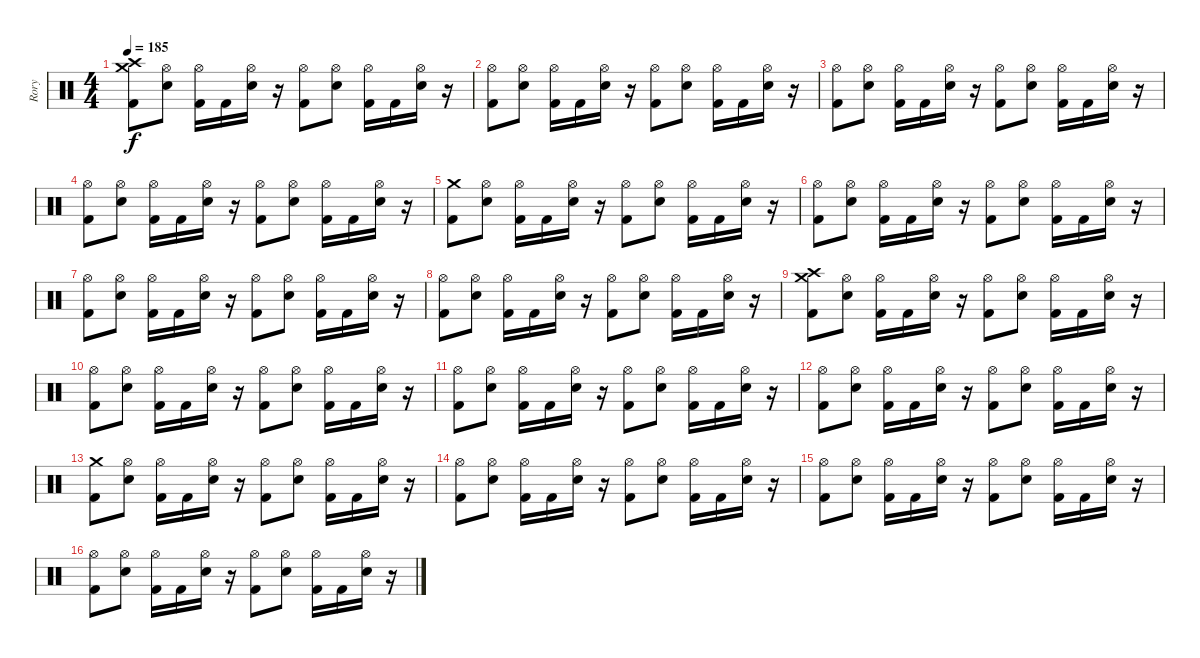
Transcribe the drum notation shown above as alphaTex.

\track ("Rory" "Rory") {instrument percussion}
\staff {score}
\articulation defaults
\ts (4 4)
\tempo 185
\clef neutral
\ks c
("Crash medium (hit)" "Crash high (hit)" "Kick (hit) 2").8{dy f} ("Hi-Hat (open)" "Electric Snare (hit)").8 ("Hi-Hat (open)" "Kick (hit) 2").16 "Kick (hit) 2".16 ("Hi-Hat (open)" "Electric Snare (hit)").16 r.16 ("Hi-Hat (open)" "Kick (hit) 2").8 ("Hi-Hat (open)" "Electric Snare (hit)").8 ("Hi-Hat (open)" "Kick (hit) 2").16 "Kick (hit) 2".16 ("Hi-Hat (open)" "Electric Snare (hit)").16 r.16 |
("Hi-Hat (open)" "Kick (hit) 2").8 ("Hi-Hat (open)" "Electric Snare (hit)").8 ("Hi-Hat (open)" "Kick (hit) 2").16 "Kick (hit) 2".16 ("Hi-Hat (open)" "Electric Snare (hit)").16 r.16 ("Hi-Hat (open)" "Kick (hit) 2").8 ("Hi-Hat (open)" "Electric Snare (hit)").8 ("Hi-Hat (open)" "Kick (hit) 2").16 "Kick (hit) 2".16 ("Hi-Hat (open)" "Electric Snare (hit)").16 r.16 |
("Hi-Hat (open)" "Kick (hit) 2").8 ("Hi-Hat (open)" "Electric Snare (hit)").8 ("Hi-Hat (open)" "Kick (hit) 2").16 "Kick (hit) 2".16 ("Hi-Hat (open)" "Electric Snare (hit)").16 r.16 ("Hi-Hat (open)" "Kick (hit) 2").8 ("Hi-Hat (open)" "Electric Snare (hit)").8 ("Hi-Hat (open)" "Kick (hit) 2").16 "Kick (hit) 2".16 ("Hi-Hat (open)" "Electric Snare (hit)").16 r.16 |
("Hi-Hat (open)" "Kick (hit) 2").8 ("Hi-Hat (open)" "Electric Snare (hit)").8 ("Hi-Hat (open)" "Kick (hit) 2").16 "Kick (hit) 2".16 ("Hi-Hat (open)" "Electric Snare (hit)").16 r.16 ("Hi-Hat (open)" "Kick (hit) 2").8 ("Hi-Hat (open)" "Electric Snare (hit)").8 ("Hi-Hat (open)" "Kick (hit) 2").16 "Kick (hit) 2".16 ("Hi-Hat (open)" "Electric Snare (hit)").16 r.16 |
("Crash medium (hit)" "Kick (hit) 2").8 ("Hi-Hat (open)" "Electric Snare (hit)").8 ("Hi-Hat (open)" "Kick (hit) 2").16 "Kick (hit) 2".16 ("Hi-Hat (open)" "Electric Snare (hit)").16 r.16 ("Hi-Hat (open)" "Kick (hit) 2").8 ("Hi-Hat (open)" "Electric Snare (hit)").8 ("Hi-Hat (open)" "Kick (hit) 2").16 "Kick (hit) 2".16 ("Hi-Hat (open)" "Electric Snare (hit)").16 r.16 |
("Hi-Hat (open)" "Kick (hit) 2").8 ("Hi-Hat (open)" "Electric Snare (hit)").8 ("Hi-Hat (open)" "Kick (hit) 2").16 "Kick (hit) 2".16 ("Hi-Hat (open)" "Electric Snare (hit)").16 r.16 ("Hi-Hat (open)" "Kick (hit) 2").8 ("Hi-Hat (open)" "Electric Snare (hit)").8 ("Hi-Hat (open)" "Kick (hit) 2").16 "Kick (hit) 2".16 ("Hi-Hat (open)" "Electric Snare (hit)").16 r.16 |
("Hi-Hat (open)" "Kick (hit) 2").8 ("Hi-Hat (open)" "Electric Snare (hit)").8 ("Hi-Hat (open)" "Kick (hit) 2").16 "Kick (hit) 2".16 ("Hi-Hat (open)" "Electric Snare (hit)").16 r.16 ("Hi-Hat (open)" "Kick (hit) 2").8 ("Hi-Hat (open)" "Electric Snare (hit)").8 ("Hi-Hat (open)" "Kick (hit) 2").16 "Kick (hit) 2".16 ("Hi-Hat (open)" "Electric Snare (hit)").16 r.16 |
("Hi-Hat (open)" "Kick (hit) 2").8 ("Hi-Hat (open)" "Electric Snare (hit)").8 ("Hi-Hat (open)" "Kick (hit) 2").16 "Kick (hit) 2".16 ("Hi-Hat (open)" "Electric Snare (hit)").16 r.16 ("Hi-Hat (open)" "Kick (hit) 2").8 ("Hi-Hat (open)" "Electric Snare (hit)").8 ("Hi-Hat (open)" "Kick (hit) 2").16 "Kick (hit) 2".16 ("Hi-Hat (open)" "Electric Snare (hit)").16 r.16 |
("Crash medium (hit)" "Crash high (hit)" "Kick (hit) 2").8 ("Hi-Hat (open)" "Electric Snare (hit)").8 ("Hi-Hat (open)" "Kick (hit) 2").16 "Kick (hit) 2".16 ("Hi-Hat (open)" "Electric Snare (hit)").16 r.16 ("Hi-Hat (open)" "Kick (hit) 2").8 ("Hi-Hat (open)" "Electric Snare (hit)").8 ("Hi-Hat (open)" "Kick (hit) 2").16 "Kick (hit) 2".16 ("Hi-Hat (open)" "Electric Snare (hit)").16 r.16 |
("Hi-Hat (open)" "Kick (hit) 2").8 ("Hi-Hat (open)" "Electric Snare (hit)").8 ("Hi-Hat (open)" "Kick (hit) 2").16 "Kick (hit) 2".16 ("Hi-Hat (open)" "Electric Snare (hit)").16 r.16 ("Hi-Hat (open)" "Kick (hit) 2").8 ("Hi-Hat (open)" "Electric Snare (hit)").8 ("Hi-Hat (open)" "Kick (hit) 2").16 "Kick (hit) 2".16 ("Hi-Hat (open)" "Electric Snare (hit)").16 r.16 |
("Hi-Hat (open)" "Kick (hit) 2").8 ("Hi-Hat (open)" "Electric Snare (hit)").8 ("Hi-Hat (open)" "Kick (hit) 2").16 "Kick (hit) 2".16 ("Hi-Hat (open)" "Electric Snare (hit)").16 r.16 ("Hi-Hat (open)" "Kick (hit) 2").8 ("Hi-Hat (open)" "Electric Snare (hit)").8 ("Hi-Hat (open)" "Kick (hit) 2").16 "Kick (hit) 2".16 ("Hi-Hat (open)" "Electric Snare (hit)").16 r.16 |
("Hi-Hat (open)" "Kick (hit) 2").8 ("Hi-Hat (open)" "Electric Snare (hit)").8 ("Hi-Hat (open)" "Kick (hit) 2").16 "Kick (hit) 2".16 ("Hi-Hat (open)" "Electric Snare (hit)").16 r.16 ("Hi-Hat (open)" "Kick (hit) 2").8 ("Hi-Hat (open)" "Electric Snare (hit)").8 ("Hi-Hat (open)" "Kick (hit) 2").16 "Kick (hit) 2".16 ("Hi-Hat (open)" "Electric Snare (hit)").16 r.16 |
("Crash medium (hit)" "Kick (hit) 2").8 ("Hi-Hat (open)" "Electric Snare (hit)").8 ("Hi-Hat (open)" "Kick (hit) 2").16 "Kick (hit) 2".16 ("Hi-Hat (open)" "Electric Snare (hit)").16 r.16 ("Hi-Hat (open)" "Kick (hit) 2").8 ("Hi-Hat (open)" "Electric Snare (hit)").8 ("Hi-Hat (open)" "Kick (hit) 2").16 "Kick (hit) 2".16 ("Hi-Hat (open)" "Electric Snare (hit)").16 r.16 |
("Hi-Hat (open)" "Kick (hit) 2").8 ("Hi-Hat (open)" "Electric Snare (hit)").8 ("Hi-Hat (open)" "Kick (hit) 2").16 "Kick (hit) 2".16 ("Hi-Hat (open)" "Electric Snare (hit)").16 r.16 ("Hi-Hat (open)" "Kick (hit) 2").8 ("Hi-Hat (open)" "Electric Snare (hit)").8 ("Hi-Hat (open)" "Kick (hit) 2").16 "Kick (hit) 2".16 ("Hi-Hat (open)" "Electric Snare (hit)").16 r.16 |
("Hi-Hat (open)" "Kick (hit) 2").8 ("Hi-Hat (open)" "Electric Snare (hit)").8 ("Hi-Hat (open)" "Kick (hit) 2").16 "Kick (hit) 2".16 ("Hi-Hat (open)" "Electric Snare (hit)").16 r.16 ("Hi-Hat (open)" "Kick (hit) 2").8 ("Hi-Hat (open)" "Electric Snare (hit)").8 ("Hi-Hat (open)" "Kick (hit) 2").16 "Kick (hit) 2".16 ("Hi-Hat (open)" "Electric Snare (hit)").16 r.16 |
("Hi-Hat (open)" "Kick (hit) 2").8 ("Hi-Hat (open)" "Electric Snare (hit)").8 ("Hi-Hat (open)" "Kick (hit) 2").16 "Kick (hit) 2".16 ("Hi-Hat (open)" "Electric Snare (hit)").16 r.16 ("Hi-Hat (open)" "Kick (hit) 2").8 ("Hi-Hat (open)" "Electric Snare (hit)").8 ("Hi-Hat (open)" "Kick (hit) 2").16 "Kick (hit) 2".16 ("Hi-Hat (open)" "Electric Snare (hit)").16 r.16
